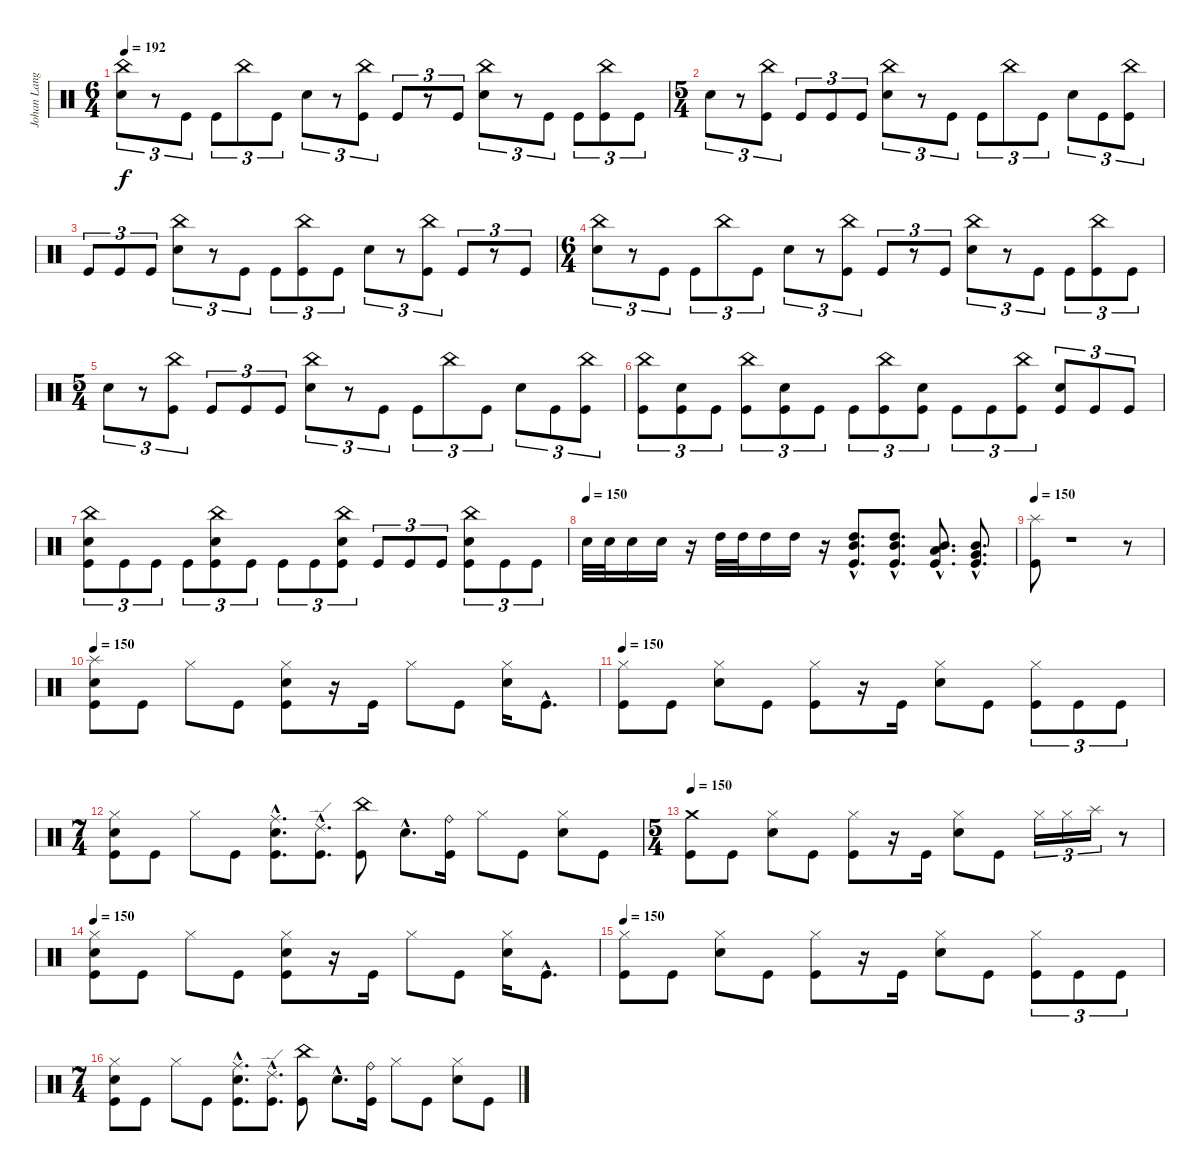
\track ("Johan Langell" "Johan Lang") {instrument percussion}
\staff {score}
\articulation defaults
\ts (6 4)
\tempo 192
\clef neutral
\ks c
("China (hit)" "Electric Snare (hit)").8{tu (3 2) dy f} r.8{tu (3 2)} "Kick (hit)".8{tu (3 2)} "Kick (hit)".8{tu (3 2)} "China (hit)".8{tu (3 2)} "Kick (hit)".8{tu (3 2)} "Electric Snare (hit)".8{tu (3 2)} r.8{tu (3 2)} ("China (hit)" "Kick (hit)").8{tu (3 2)} "Kick (hit)".8{tu (3 2)} r.8{tu (3 2)} "Kick (hit)".8{tu (3 2)} ("China (hit)" "Electric Snare (hit)").8{tu (3 2)} r.8{tu (3 2)} "Kick (hit)".8{tu (3 2)} "Kick (hit)".8{tu (3 2)} ("China (hit)" "Kick (hit)").8{tu (3 2)} "Kick (hit)".8{tu (3 2)} |
\ts (5 4)
"Electric Snare (hit)".8{tu (3 2)} r.8{tu (3 2)} ("China (hit)" "Kick (hit)").8{tu (3 2)} "Kick (hit)".8{tu (3 2)} "Kick (hit)".8{tu (3 2)} "Kick (hit)".8{tu (3 2)} ("China (hit)" "Electric Snare (hit)").8{tu (3 2)} r.8{tu (3 2)} "Kick (hit)".8{tu (3 2)} "Kick (hit)".8{tu (3 2)} "China (hit)".8{tu (3 2)} "Kick (hit)".8{tu (3 2)} "Electric Snare (hit)".8{tu (3 2)} "Kick (hit)".8{tu (3 2)} ("China (hit)" "Kick (hit)").8{tu (3 2)} |
"Kick (hit)".8{tu (3 2)} "Kick (hit)".8{tu (3 2)} "Kick (hit)".8{tu (3 2)} ("China (hit)" "Electric Snare (hit)").8{tu (3 2)} r.8{tu (3 2)} "Kick (hit)".8{tu (3 2)} "Kick (hit)".8{tu (3 2)} ("China (hit)" "Kick (hit)").8{tu (3 2)} "Kick (hit)".8{tu (3 2)} "Electric Snare (hit)".8{tu (3 2)} r.8{tu (3 2)} ("China (hit)" "Kick (hit)").8{tu (3 2)} "Kick (hit)".8{tu (3 2)} r.8{tu (3 2)} "Kick (hit)".8{tu (3 2)} |
\ts (6 4)
("China (hit)" "Electric Snare (hit)").8{tu (3 2)} r.8{tu (3 2)} "Kick (hit)".8{tu (3 2)} "Kick (hit)".8{tu (3 2)} "China (hit)".8{tu (3 2)} "Kick (hit)".8{tu (3 2)} "Electric Snare (hit)".8{tu (3 2)} r.8{tu (3 2)} ("China (hit)" "Kick (hit)").8{tu (3 2)} "Kick (hit)".8{tu (3 2)} r.8{tu (3 2)} "Kick (hit)".8{tu (3 2)} ("China (hit)" "Electric Snare (hit)").8{tu (3 2)} r.8{tu (3 2)} "Kick (hit)".8{tu (3 2)} "Kick (hit)".8{tu (3 2)} ("China (hit)" "Kick (hit)").8{tu (3 2)} "Kick (hit)".8{tu (3 2)} |
\ts (5 4)
"Electric Snare (hit)".8{tu (3 2)} r.8{tu (3 2)} ("China (hit)" "Kick (hit)").8{tu (3 2)} "Kick (hit)".8{tu (3 2)} "Kick (hit)".8{tu (3 2)} "Kick (hit)".8{tu (3 2)} ("China (hit)" "Electric Snare (hit)").8{tu (3 2)} r.8{tu (3 2)} "Kick (hit)".8{tu (3 2)} "Kick (hit)".8{tu (3 2)} "China (hit)".8{tu (3 2)} "Kick (hit)".8{tu (3 2)} "Electric Snare (hit)".8{tu (3 2)} "Kick (hit)".8{tu (3 2)} ("China (hit)" "Kick (hit)").8{tu (3 2)} |
("China (hit)" "Kick (hit)").8{tu (3 2)} ("Electric Snare (hit)" "Kick (hit)").8{tu (3 2)} "Kick (hit)".8{tu (3 2)} ("China (hit)" "Kick (hit)").8{tu (3 2)} ("Electric Snare (hit)" "Kick (hit)").8{tu (3 2)} "Kick (hit)".8{tu (3 2)} "Kick (hit)".8{tu (3 2)} ("China (hit)" "Kick (hit)").8{tu (3 2)} ("Electric Snare (hit)" "Kick (hit)").8{tu (3 2)} "Kick (hit)".8{tu (3 2)} "Kick (hit)".8{tu (3 2)} ("China (hit)" "Kick (hit)").8{tu (3 2)} ("Electric Snare (hit)" "Kick (hit)").8{tu (3 2)} "Kick (hit)".8{tu (3 2)} "Kick (hit)".8{tu (3 2)} |
("China (hit)" "Electric Snare (hit)" "Kick (hit)").8{tu (3 2)} "Kick (hit)".8{tu (3 2)} "Kick (hit)".8{tu (3 2)} "Kick (hit)".8{tu (3 2)} ("China (hit)" "Electric Snare (hit)" "Kick (hit)").8{tu (3 2)} "Kick (hit)".8{tu (3 2)} "Kick (hit)".8{tu (3 2)} "Kick (hit)".8{tu (3 2)} ("China (hit)" "Electric Snare (hit)" "Kick (hit)").8{tu (3 2)} "Kick (hit)".8{tu (3 2)} "Kick (hit)".8{tu (3 2)} "Kick (hit)".8{tu (3 2)} ("China (hit)" "Electric Snare (hit)" "Kick (hit)").8{tu (3 2)} "Kick (hit)".8{tu (3 2)} "Kick (hit)".8{tu (3 2)} |
\tempo (150)
"Electric Snare (hit)".32 "Electric Snare (hit)".32 "Electric Snare (hit)".16 "Electric Snare (hit)".16 r.16 "High Tom (hit)".32 "High Tom (hit)".32 "High Tom (hit)".16 "High Tom (hit)".16 r.16 ("Mid Tom (hit)"{hac} "High Tom (hit)"{hac} "Kick (hit)"{hac}).8{d} ("High Tom (hit)"{hac} "Mid Tom (hit)"{hac} "Kick (hit)"{hac}).8{d} ("Low Tom (hit)"{hac} "Mid Tom (hit)"{hac} "Kick (hit)"{hac}).8{d} ("Very Low Tom (hit)"{hac} "Mid Tom (hit)"{hac} "Kick (hit)"{hac}).8{d} |
\tempo 150
("Splash (hit)" "Kick (hit)").8 r.1 r.8 |
\tempo 150
("Splash (hit)" "Electric Snare (hit)" "Kick (hit)").8 "Kick (hit)".8 "Hi-Hat (closed)".8 "Kick (hit)".8 ("Hi-Hat (closed)" "Electric Snare (hit)" "Kick (hit)").8 r.16 "Kick (hit)".16 "Hi-Hat (closed)".8 "Kick (hit)".8 ("Hi-Hat (closed)" "Electric Snare (hit)").16 "Kick (hit)"{hac}.8{d} |
\tempo 150
("Hi-Hat (closed)" "Kick (hit)").8 "Kick (hit)".8 ("Hi-Hat (closed)" "Electric Snare (hit)").8 "Kick (hit)".8 ("Hi-Hat (closed)" "Kick (hit)").8 r.16 "Kick (hit)".16 ("Hi-Hat (closed)" "Electric Snare (hit)").8 "Kick (hit)".8 ("Hi-Hat (closed)" "Kick (hit)").8{tu (3 2)} "Kick (hit)".8{tu (3 2)} "Kick (hit)".8{tu (3 2)} |
\ts (7 4)
("Hi-Hat (closed)" "Electric Snare (hit)" "Kick (hit)").8 "Kick (hit)".8 "Hi-Hat (closed)".8 "Kick (hit)".8 ("Ride (middle)"{hac} "Electric Snare (hit)"{hac} "Kick (hit)"{hac}).8{d} ("Ride (edge) 2"{hac} "Kick (hit)"{hac}).8{d} ("China (hit)" "Kick (hit)").8 "Electric Snare (hit)"{hac}.8{d} ("Ride (bell)" "Kick (hit)").16 "Hi-Hat (closed)".8 "Kick (hit)".8 ("Hi-Hat (closed)" "Electric Snare (hit)").8 "Kick (hit)".8 |
\ts (5 4)
\tempo 150
("Crash medium (hit)" "Kick (hit)").8 "Kick (hit)".8 ("Hi-Hat (closed)" "Electric Snare (hit)").8 "Kick (hit)".8 ("Hi-Hat (closed)" "Kick (hit)").8 r.16 "Kick (hit)".16 ("Hi-Hat (closed)" "Electric Snare (hit)").8 "Kick (hit)".8 "Hi-Hat (closed)".16{tu (3 2)} "Hi-Hat (closed)".16{tu (3 2)} "Splash (hit)".16{tu (3 2)} r.8 |
\tempo 150
("Hi-Hat (closed)" "Electric Snare (hit)" "Kick (hit)").8 "Kick (hit)".8 "Hi-Hat (closed)".8 "Kick (hit)".8 ("Hi-Hat (closed)" "Electric Snare (hit)" "Kick (hit)").8 r.16 "Kick (hit)".16 "Hi-Hat (closed)".8 "Kick (hit)".8 ("Hi-Hat (closed)" "Electric Snare (hit)").16 "Kick (hit)"{hac}.8{d} |
\tempo 150
("Hi-Hat (closed)" "Kick (hit)").8 "Kick (hit)".8 ("Hi-Hat (closed)" "Electric Snare (hit)").8 "Kick (hit)".8 ("Hi-Hat (closed)" "Kick (hit)").8 r.16 "Kick (hit)".16 ("Hi-Hat (closed)" "Electric Snare (hit)").8 "Kick (hit)".8 ("Hi-Hat (closed)" "Kick (hit)").8{tu (3 2)} "Kick (hit)".8{tu (3 2)} "Kick (hit)".8{tu (3 2)} |
\ts (7 4)
("Hi-Hat (closed)" "Electric Snare (hit)" "Kick (hit)").8 "Kick (hit)".8 "Hi-Hat (closed)".8 "Kick (hit)".8 ("Ride (middle)"{hac} "Electric Snare (hit)"{hac} "Kick (hit)"{hac}).8{d} ("Ride (edge) 2"{hac} "Kick (hit)"{hac}).8{d} ("China (hit)" "Kick (hit)").8 "Electric Snare (hit)"{hac}.8{d} ("Ride (bell)" "Kick (hit)").16 "Hi-Hat (closed)".8 "Kick (hit)".8 ("Hi-Hat (closed)" "Electric Snare (hit)").8 "Kick (hit)".8
